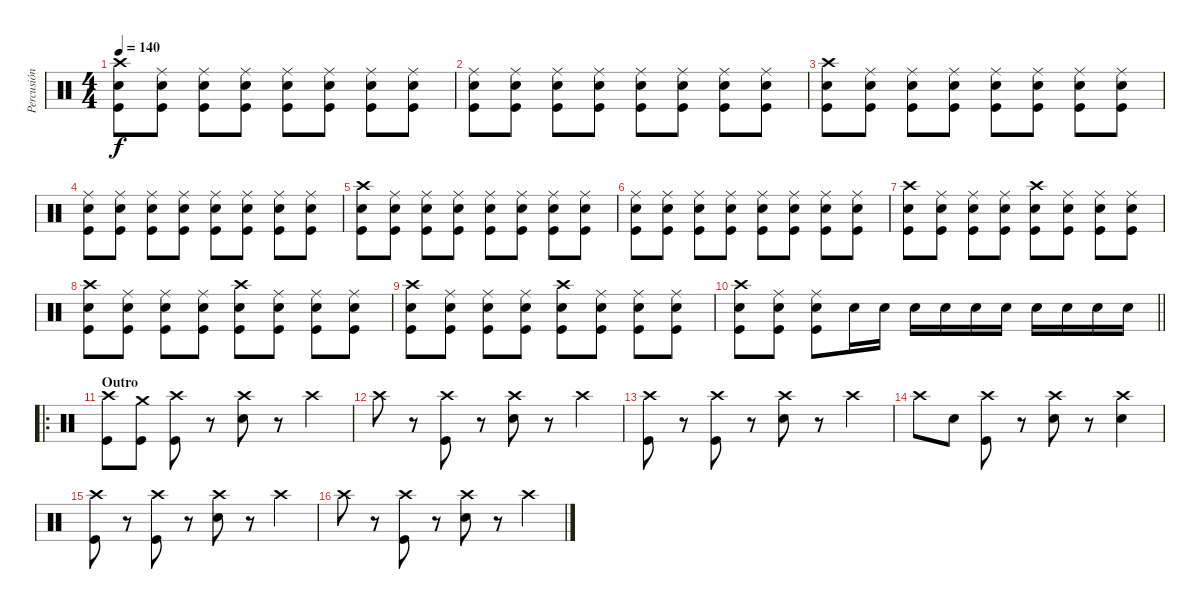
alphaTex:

\track ("Percusión" "Percusión") {instrument percussion}
\staff {score}
\articulation defaults
\ts (4 4)
\tempo 140
\clef neutral
\ks c
("Kick (hit)" "Crash high (hit)" "Snare (hit) 2").8{dy f} ("Kick (hit)" "Ride (middle)" "Snare (hit) 2").8 ("Kick (hit)" "Ride (middle)" "Snare (hit) 2").8 ("Kick (hit)" "Ride (middle)" "Snare (hit) 2").8 ("Kick (hit)" "Ride (middle)" "Snare (hit) 2").8 ("Kick (hit)" "Ride (middle)" "Snare (hit) 2").8 ("Kick (hit)" "Ride (middle)" "Snare (hit) 2").8 ("Kick (hit)" "Ride (middle)" "Snare (hit) 2").8 |
("Kick (hit)" "Ride (middle)" "Snare (hit) 2").8 ("Kick (hit)" "Ride (middle)" "Snare (hit) 2").8 ("Kick (hit)" "Ride (middle)" "Snare (hit) 2").8 ("Kick (hit)" "Ride (middle)" "Snare (hit) 2").8 ("Kick (hit)" "Ride (middle)" "Snare (hit) 2").8 ("Kick (hit)" "Ride (middle)" "Snare (hit) 2").8 ("Kick (hit)" "Ride (middle)" "Snare (hit) 2").8 ("Kick (hit)" "Ride (middle)" "Snare (hit) 2").8 |
("Kick (hit)" "Crash high (hit)" "Snare (hit) 2").8 ("Kick (hit)" "Ride (middle)" "Snare (hit) 2").8 ("Kick (hit)" "Ride (middle)" "Snare (hit) 2").8 ("Kick (hit)" "Ride (middle)" "Snare (hit) 2").8 ("Kick (hit)" "Ride (middle)" "Snare (hit) 2").8 ("Kick (hit)" "Ride (middle)" "Snare (hit) 2").8 ("Kick (hit)" "Ride (middle)" "Snare (hit) 2").8 ("Kick (hit)" "Ride (middle)" "Snare (hit) 2").8 |
("Kick (hit)" "Ride (middle)" "Snare (hit) 2").8 ("Kick (hit)" "Ride (middle)" "Snare (hit) 2").8 ("Kick (hit)" "Ride (middle)" "Snare (hit) 2").8 ("Kick (hit)" "Ride (middle)" "Snare (hit) 2").8 ("Kick (hit)" "Ride (middle)" "Snare (hit) 2").8 ("Kick (hit)" "Ride (middle)" "Snare (hit) 2").8 ("Kick (hit)" "Ride (middle)" "Snare (hit) 2").8 ("Kick (hit)" "Ride (middle)" "Snare (hit) 2").8 |
("Kick (hit)" "Crash high (hit)" "Snare (hit) 2").8 ("Kick (hit)" "Ride (middle)" "Snare (hit) 2").8 ("Kick (hit)" "Ride (middle)" "Snare (hit) 2").8 ("Kick (hit)" "Ride (middle)" "Snare (hit) 2").8 ("Kick (hit)" "Ride (middle)" "Snare (hit) 2").8 ("Kick (hit)" "Ride (middle)" "Snare (hit) 2").8 ("Kick (hit)" "Ride (middle)" "Snare (hit) 2").8 ("Kick (hit)" "Ride (middle)" "Snare (hit) 2").8 |
("Kick (hit)" "Ride (middle)" "Snare (hit) 2").8 ("Kick (hit)" "Ride (middle)" "Snare (hit) 2").8 ("Kick (hit)" "Ride (middle)" "Snare (hit) 2").8 ("Kick (hit)" "Ride (middle)" "Snare (hit) 2").8 ("Kick (hit)" "Ride (middle)" "Snare (hit) 2").8 ("Kick (hit)" "Ride (middle)" "Snare (hit) 2").8 ("Kick (hit)" "Ride (middle)" "Snare (hit) 2").8 ("Kick (hit)" "Ride (middle)" "Snare (hit) 2").8 |
("Kick (hit)" "Crash high (hit)" "Snare (hit) 2").8 ("Kick (hit)" "Ride (middle)" "Snare (hit) 2").8 ("Kick (hit)" "Ride (middle)" "Snare (hit) 2").8 ("Kick (hit)" "Ride (middle)" "Snare (hit) 2").8 ("Kick (hit)" "Crash high (hit)" "Snare (hit) 2").8 ("Kick (hit)" "Ride (middle)" "Snare (hit) 2").8 ("Kick (hit)" "Ride (middle)" "Snare (hit) 2").8 ("Kick (hit)" "Ride (middle)" "Snare (hit) 2").8 |
("Kick (hit)" "Crash high (hit)" "Snare (hit) 2").8 ("Kick (hit)" "Ride (middle)" "Snare (hit) 2").8 ("Kick (hit)" "Ride (middle)" "Snare (hit) 2").8 ("Kick (hit)" "Ride (middle)" "Snare (hit) 2").8 ("Kick (hit)" "Crash high (hit)" "Snare (hit) 2").8 ("Kick (hit)" "Ride (middle)" "Snare (hit) 2").8 ("Kick (hit)" "Ride (middle)" "Snare (hit) 2").8 ("Kick (hit)" "Ride (middle)" "Snare (hit) 2").8 |
("Kick (hit)" "Crash high (hit)" "Snare (hit) 2").8 ("Kick (hit)" "Ride (middle)" "Snare (hit) 2").8 ("Kick (hit)" "Ride (middle)" "Snare (hit) 2").8 ("Kick (hit)" "Ride (middle)" "Snare (hit) 2").8 ("Kick (hit)" "Crash high (hit)" "Snare (hit) 2").8 ("Kick (hit)" "Ride (middle)" "Snare (hit) 2").8 ("Kick (hit)" "Ride (middle)" "Snare (hit) 2").8 ("Kick (hit)" "Ride (middle)" "Snare (hit) 2").8 |
\barLineRight lightlight
("Kick (hit)" "Crash high (hit)" "Snare (hit) 2").8 ("Kick (hit)" "Ride (middle)" "Snare (hit) 2").8 ("Kick (hit)" "Ride (middle)" "Snare (hit) 2").8 "Snare (hit) 2".16 "Snare (hit) 2".16 "Snare (hit) 2".16 "Snare (hit) 2".16 "Snare (hit) 2".16 "Snare (hit) 2".16 "Snare (hit) 2".16 "Snare (hit) 2".16 "Snare (hit) 2".16 "Snare (hit) 2".16 |
\ro
\section ("" "Outro")
("Crash high (hit)" "Kick (hit)").8 ("Crash medium (hit)" "Kick (hit)").8 ("Crash high (hit)" "Kick (hit)").8 r.8 ("Crash high (hit)" "Snare (hit) 2").8 r.8 "Crash high (hit)".4 |
"Crash high (hit)".8 r.8 ("Crash high (hit)" "Kick (hit)").8 r.8 ("Crash high (hit)" "Snare (hit) 2").8 r.8 "Crash high (hit)".4 |
("Crash high (hit)" "Kick (hit)").8 r.8 ("Crash high (hit)" "Kick (hit)").8 r.8 ("Crash high (hit)" "Snare (hit) 2").8 r.8 "Crash high (hit)".4 |
"Crash high (hit)".8 "Snare (hit) 2".8 ("Crash high (hit)" "Kick (hit)").8 r.8 ("Crash high (hit)" "Snare (hit) 2").8 r.8 ("Crash high (hit)" "Snare (hit) 2").4 |
("Crash high (hit)" "Kick (hit)").8 r.8 ("Crash high (hit)" "Kick (hit)").8 r.8 ("Crash high (hit)" "Snare (hit) 2").8 r.8 "Crash high (hit)".4 |
"Crash high (hit)".8 r.8 ("Crash high (hit)" "Kick (hit)").8 r.8 ("Crash high (hit)" "Snare (hit) 2").8 r.8 "Crash high (hit)".4
